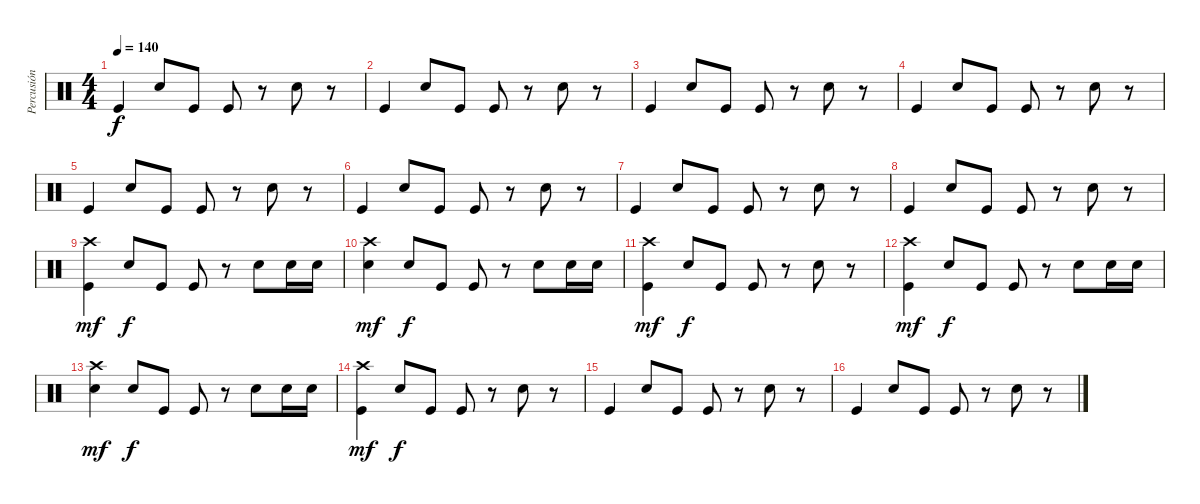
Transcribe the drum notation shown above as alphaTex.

\track ("Percusión" "Percusión") {instrument percussion}
\staff {score}
\articulation defaults
\ts (4 4)
\tempo 140
\clef neutral
\ks c "Kick (hit)".4{dy f} "Snare (hit) 2".8 "Kick (hit)".8 "Kick (hit)".8
r.8 "Snare (hit) 2".8 r.8 |
"Kick (hit)".4 "Snare (hit) 2".8 "Kick (hit)".8 "Kick (hit)".8 r.8 "Snare (hit) 2".8 r.8 |
"Kick (hit)".4 "Snare (hit) 2".8 "Kick (hit)".8 "Kick (hit)".8 r.8 "Snare (hit) 2".8 r.8 |
"Kick (hit)".4 "Snare (hit) 2".8 "Kick (hit)".8 "Kick (hit)".8 r.8 "Snare (hit) 2".8 r.8 |
"Kick (hit)".4 "Snare (hit) 2".8 "Kick (hit)".8 "Kick (hit)".8 r.8 "Snare (hit) 2".8 r.8 |
"Kick (hit)".4 "Snare (hit) 2".8 "Kick (hit)".8 "Kick (hit)".8 r.8 "Snare (hit) 2".8 r.8 |
"Kick (hit)".4 "Snare (hit) 2".8 "Kick (hit)".8 "Kick (hit)".8 r.8 "Snare (hit) 2".8 r.8 |
"Kick (hit)".4 "Snare (hit) 2".8 "Kick (hit)".8 "Kick (hit)".8 r.8 "Snare (hit) 2".8 r.8 |
("Kick (hit)" "Crash high (hit)").4{dy mf} "Snare (hit) 2".8{dy f} "Kick (hit)".8 "Kick (hit)".8 r.8 "Snare (hit) 2".8 "Snare (hit) 2".16 "Snare (hit) 2".16 |
("Snare (hit) 2" "Crash high (hit)").4{dy mf} "Snare (hit) 2".8{dy f} "Kick (hit)".8 "Kick (hit)".8 r.8 "Snare (hit) 2".8 "Snare (hit) 2".16 "Snare (hit) 2".16 |
("Kick (hit)" "Crash high (hit)").4{dy mf} "Snare (hit) 2".8{dy f} "Kick (hit)".8 "Kick (hit)".8 r.8 "Snare (hit) 2".8 r.8 |
("Kick (hit)" "Crash high (hit)").4{dy mf} "Snare (hit) 2".8{dy f} "Kick (hit)".8 "Kick (hit)".8 r.8 "Snare (hit) 2".8 "Snare (hit) 2".16 "Snare (hit) 2".16 |
("Snare (hit) 2" "Crash high (hit)").4{dy mf} "Snare (hit) 2".8{dy f} "Kick (hit)".8 "Kick (hit)".8 r.8 "Snare (hit) 2".8 "Snare (hit) 2".16 "Snare (hit) 2".16 |
("Kick (hit)" "Crash high (hit)").4{dy mf} "Snare (hit) 2".8{dy f} "Kick (hit)".8 "Kick (hit)".8 r.8 "Snare (hit) 2".8 r.8 |
"Kick (hit)".4 "Snare (hit) 2".8 "Kick (hit)".8 "Kick (hit)".8 r.8 "Snare (hit) 2".8 r.8 |
"Kick (hit)".4 "Snare (hit) 2".8 "Kick (hit)".8 "Kick (hit)".8 r.8 "Snare (hit) 2".8 r.8
